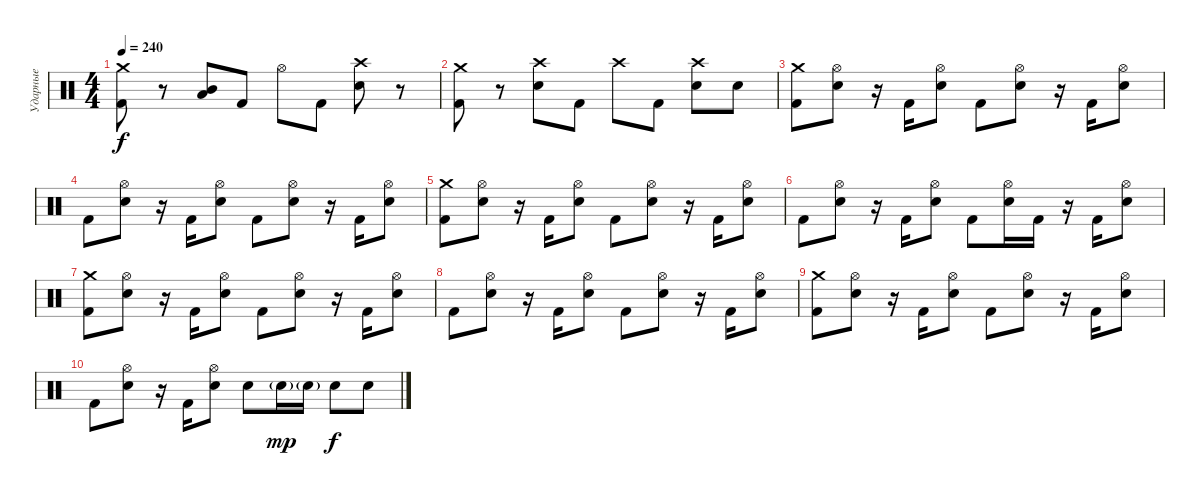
\track ("Ударные" "Ударные") {instrument percussion}
\staff {score}
\articulation defaults
\ts (4 4)
\tempo 240
\clef neutral
\ks c
("Kick (hit) 2" "Crash medium (hit)").8{dy f} r.8 ("Mid Tom (hit)" "Low Tom (hit)").8 "Kick (hit) 2".8 "Hi-Hat (open)".8 "Kick (hit) 2".8 ("Electric Snare (hit)" "Crash high (hit)").8 r.8 |
("Kick (hit) 2" "Crash medium (hit)").8 r.8 ("Electric Snare (hit)" "Crash high (hit)").8 "Kick (hit) 2".8 "Crash high (hit)".8 "Kick (hit) 2".8 ("Electric Snare (hit)" "Crash high (hit)").8 "Electric Snare (hit)".8 |
("Kick (hit) 2" "Crash medium (hit)").8 ("Electric Snare (hit)" "Hi-Hat (open)").8 r.16 "Kick (hit) 2".16 ("Electric Snare (hit)" "Hi-Hat (open)").8 "Kick (hit) 2".8 ("Electric Snare (hit)" "Hi-Hat (open)").8 r.16 "Kick (hit) 2".16 ("Electric Snare (hit)" "Hi-Hat (open)").8 |
"Kick (hit) 2".8 ("Electric Snare (hit)" "Hi-Hat (open)").8 r.16 "Kick (hit) 2".16 ("Electric Snare (hit)" "Hi-Hat (open)").8 "Kick (hit) 2".8 ("Electric Snare (hit)" "Hi-Hat (open)").8 r.16 "Kick (hit) 2".16 ("Electric Snare (hit)" "Hi-Hat (open)").8 |
("Kick (hit) 2" "Crash medium (hit)").8 ("Electric Snare (hit)" "Hi-Hat (open)").8 r.16 "Kick (hit) 2".16 ("Electric Snare (hit)" "Hi-Hat (open)").8 "Kick (hit) 2".8 ("Electric Snare (hit)" "Hi-Hat (open)").8 r.16 "Kick (hit) 2".16 ("Electric Snare (hit)" "Hi-Hat (open)").8 |
"Kick (hit) 2".8 ("Electric Snare (hit)" "Hi-Hat (open)").8 r.16 "Kick (hit) 2".16 ("Electric Snare (hit)" "Hi-Hat (open)").8 "Kick (hit) 2".8 ("Electric Snare (hit)" "Hi-Hat (open)").16 "Kick (hit) 2".16 r.16 "Kick (hit) 2".16 ("Electric Snare (hit)" "Hi-Hat (open)").8 |
("Kick (hit) 2" "Crash medium (hit)").8 ("Electric Snare (hit)" "Hi-Hat (open)").8 r.16 "Kick (hit) 2".16 ("Electric Snare (hit)" "Hi-Hat (open)").8 "Kick (hit) 2".8 ("Electric Snare (hit)" "Hi-Hat (open)").8 r.16 "Kick (hit) 2".16 ("Electric Snare (hit)" "Hi-Hat (open)").8 |
"Kick (hit) 2".8 ("Electric Snare (hit)" "Hi-Hat (open)").8 r.16 "Kick (hit) 2".16 ("Electric Snare (hit)" "Hi-Hat (open)").8 "Kick (hit) 2".8 ("Electric Snare (hit)" "Hi-Hat (open)").8 r.16 "Kick (hit) 2".16 ("Electric Snare (hit)" "Hi-Hat (open)").8 |
("Kick (hit) 2" "Crash medium (hit)").8 ("Electric Snare (hit)" "Hi-Hat (open)").8 r.16 "Kick (hit) 2".16 ("Electric Snare (hit)" "Hi-Hat (open)").8 "Kick (hit) 2".8 ("Electric Snare (hit)" "Hi-Hat (open)").8 r.16 "Kick (hit) 2".16 ("Electric Snare (hit)" "Hi-Hat (open)").8 |
"Kick (hit) 2".8 ("Electric Snare (hit)" "Hi-Hat (open)").8 r.16 "Kick (hit) 2".16 ("Electric Snare (hit)" "Hi-Hat (open)").8 "Electric Snare (hit)".8 "Electric Snare (hit)"{g}.16{dy mp} "Electric Snare (hit)"{g}.16 "Electric Snare (hit)".8{dy f} "Electric Snare (hit)".8
